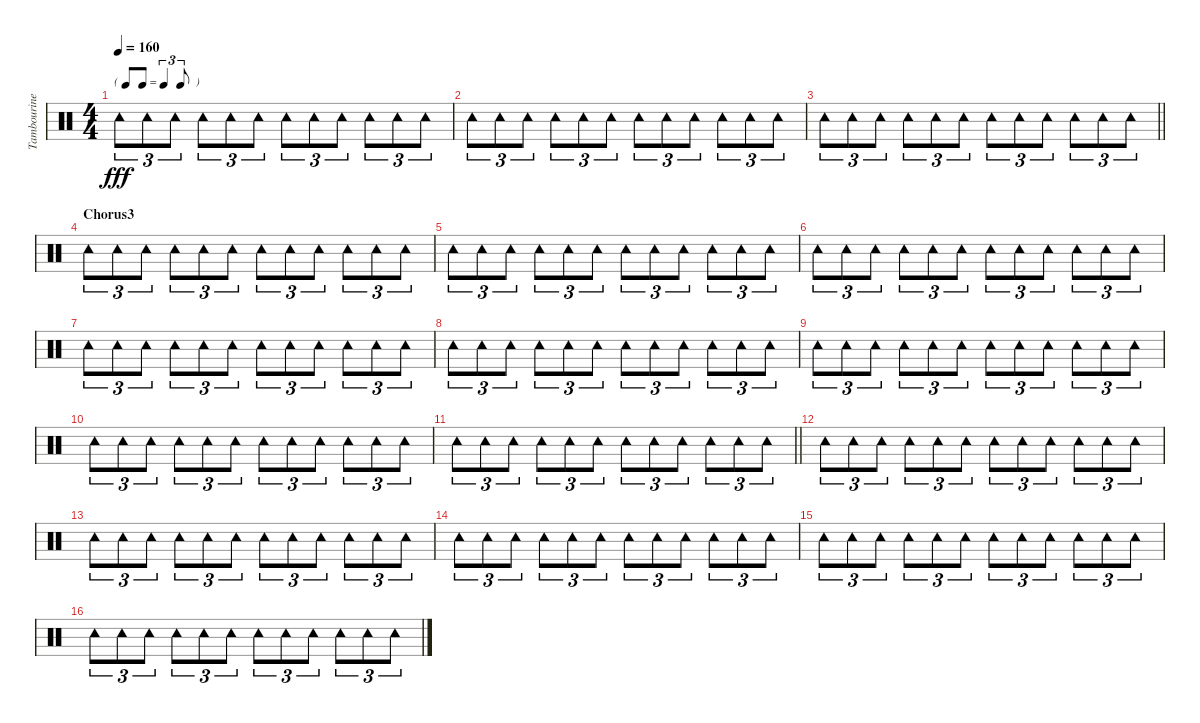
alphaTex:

\track ("Tambourine" "Tambourine") {instrument percussion}
\staff {score}
\articulation defaults
\ts (4 4)
\tf triplet8th
\tempo 160
\clef neutral
\ks c "Tambourine (hit)".8{tu (3 2) dy fff} "Tambourine (hit)".8{tu (3 2)} "Tambourine (hit)".8{tu (3 2)} "Tambourine (hit)".8{tu (3 2)} "Tambourine (hit)".8{tu (3 2)} "Tambourine (hit)".8{tu (3 2)} "Tambourine (hit)".8{tu (3 2)} "Tambourine (hit)".8{tu (3 2)} "Tambourine (hit)".8{tu (3 2)} "Tambourine (hit)".8{tu (3 2)} "Tambourine (hit)".8{tu (3 2)} "Tambourine (hit)".8{tu (3 2)}
|
"Tambourine (hit)".8{tu (3 2)} "Tambourine (hit)".8{tu (3 2)} "Tambourine (hit)".8{tu (3 2)} "Tambourine (hit)".8{tu (3 2)} "Tambourine (hit)".8{tu (3 2)} "Tambourine (hit)".8{tu (3 2)} "Tambourine (hit)".8{tu (3 2)} "Tambourine (hit)".8{tu (3 2)} "Tambourine (hit)".8{tu (3 2)} "Tambourine (hit)".8{tu (3 2)} "Tambourine (hit)".8{tu (3 2)} "Tambourine (hit)".8{tu (3 2)} |
\barLineRight lightlight "Tambourine (hit)".8{tu (3 2)} "Tambourine (hit)".8{tu (3 2)} "Tambourine (hit)".8{tu (3 2)} "Tambourine (hit)".8{tu (3 2)} "Tambourine (hit)".8{tu (3 2)} "Tambourine (hit)".8{tu (3 2)} "Tambourine (hit)".8{tu (3 2)} "Tambourine (hit)".8{tu (3 2)} "Tambourine (hit)".8{tu (3 2)} "Tambourine (hit)".8{tu (3 2)} "Tambourine (hit)".8{tu (3 2)} "Tambourine (hit)".8{tu (3 2)}
|
\section ("" "Chorus3")
"Tambourine (hit)".8{tu (3 2)} "Tambourine (hit)".8{tu (3 2)} "Tambourine (hit)".8{tu (3 2)} "Tambourine (hit)".8{tu (3 2)} "Tambourine (hit)".8{tu (3 2)} "Tambourine (hit)".8{tu (3 2)} "Tambourine (hit)".8{tu (3 2)} "Tambourine (hit)".8{tu (3 2)} "Tambourine (hit)".8{tu (3 2)} "Tambourine (hit)".8{tu (3 2)} "Tambourine (hit)".8{tu (3 2)} "Tambourine (hit)".8{tu (3 2)} |
"Tambourine (hit)".8{tu (3 2)} "Tambourine (hit)".8{tu (3 2)} "Tambourine (hit)".8{tu (3 2)} "Tambourine (hit)".8{tu (3 2)} "Tambourine (hit)".8{tu (3 2)} "Tambourine (hit)".8{tu (3 2)} "Tambourine (hit)".8{tu (3 2)} "Tambourine (hit)".8{tu (3 2)} "Tambourine (hit)".8{tu (3 2)} "Tambourine (hit)".8{tu (3 2)} "Tambourine (hit)".8{tu (3 2)} "Tambourine (hit)".8{tu (3 2)} |
"Tambourine (hit)".8{tu (3 2)} "Tambourine (hit)".8{tu (3 2)} "Tambourine (hit)".8{tu (3 2)} "Tambourine (hit)".8{tu (3 2)} "Tambourine (hit)".8{tu (3 2)} "Tambourine (hit)".8{tu (3 2)} "Tambourine (hit)".8{tu (3 2)} "Tambourine (hit)".8{tu (3 2)} "Tambourine (hit)".8{tu (3 2)} "Tambourine (hit)".8{tu (3 2)} "Tambourine (hit)".8{tu (3 2)} "Tambourine (hit)".8{tu (3 2)} |
"Tambourine (hit)".8{tu (3 2)} "Tambourine (hit)".8{tu (3 2)} "Tambourine (hit)".8{tu (3 2)} "Tambourine (hit)".8{tu (3 2)} "Tambourine (hit)".8{tu (3 2)} "Tambourine (hit)".8{tu (3 2)} "Tambourine (hit)".8{tu (3 2)} "Tambourine (hit)".8{tu (3 2)} "Tambourine (hit)".8{tu (3 2)} "Tambourine (hit)".8{tu (3 2)} "Tambourine (hit)".8{tu (3 2)} "Tambourine (hit)".8{tu (3 2)} |
"Tambourine (hit)".8{tu (3 2)} "Tambourine (hit)".8{tu (3 2)} "Tambourine (hit)".8{tu (3 2)} "Tambourine (hit)".8{tu (3 2)} "Tambourine (hit)".8{tu (3 2)} "Tambourine (hit)".8{tu (3 2)} "Tambourine (hit)".8{tu (3 2)} "Tambourine (hit)".8{tu (3 2)} "Tambourine (hit)".8{tu (3 2)} "Tambourine (hit)".8{tu (3 2)} "Tambourine (hit)".8{tu (3 2)} "Tambourine (hit)".8{tu (3 2)} |
"Tambourine (hit)".8{tu (3 2)} "Tambourine (hit)".8{tu (3 2)} "Tambourine (hit)".8{tu (3 2)} "Tambourine (hit)".8{tu (3 2)} "Tambourine (hit)".8{tu (3 2)} "Tambourine (hit)".8{tu (3 2)} "Tambourine (hit)".8{tu (3 2)} "Tambourine (hit)".8{tu (3 2)} "Tambourine (hit)".8{tu (3 2)} "Tambourine (hit)".8{tu (3 2)} "Tambourine (hit)".8{tu (3 2)} "Tambourine (hit)".8{tu (3 2)} |
"Tambourine (hit)".8{tu (3 2)} "Tambourine (hit)".8{tu (3 2)} "Tambourine (hit)".8{tu (3 2)} "Tambourine (hit)".8{tu (3 2)} "Tambourine (hit)".8{tu (3 2)} "Tambourine (hit)".8{tu (3 2)} "Tambourine (hit)".8{tu (3 2)} "Tambourine (hit)".8{tu (3 2)} "Tambourine (hit)".8{tu (3 2)} "Tambourine (hit)".8{tu (3 2)} "Tambourine (hit)".8{tu (3 2)} "Tambourine (hit)".8{tu (3 2)} |
\barLineRight lightlight "Tambourine (hit)".8{tu (3 2)} "Tambourine (hit)".8{tu (3 2)} "Tambourine (hit)".8{tu (3 2)} "Tambourine (hit)".8{tu (3 2)} "Tambourine (hit)".8{tu (3 2)} "Tambourine (hit)".8{tu (3 2)} "Tambourine (hit)".8{tu (3 2)} "Tambourine (hit)".8{tu (3 2)} "Tambourine (hit)".8{tu (3 2)} "Tambourine (hit)".8{tu (3 2)} "Tambourine (hit)".8{tu (3 2)} "Tambourine (hit)".8{tu (3 2)}
|
"Tambourine (hit)".8{tu (3 2)} "Tambourine (hit)".8{tu (3 2)} "Tambourine (hit)".8{tu (3 2)} "Tambourine (hit)".8{tu (3 2)} "Tambourine (hit)".8{tu (3 2)} "Tambourine (hit)".8{tu (3 2)} "Tambourine (hit)".8{tu (3 2)} "Tambourine (hit)".8{tu (3 2)} "Tambourine (hit)".8{tu (3 2)} "Tambourine (hit)".8{tu (3 2)} "Tambourine (hit)".8{tu (3 2)} "Tambourine (hit)".8{tu (3 2)} |
"Tambourine (hit)".8{tu (3 2)} "Tambourine (hit)".8{tu (3 2)} "Tambourine (hit)".8{tu (3 2)} "Tambourine (hit)".8{tu (3 2)} "Tambourine (hit)".8{tu (3 2)} "Tambourine (hit)".8{tu (3 2)} "Tambourine (hit)".8{tu (3 2)} "Tambourine (hit)".8{tu (3 2)} "Tambourine (hit)".8{tu (3 2)} "Tambourine (hit)".8{tu (3 2)} "Tambourine (hit)".8{tu (3 2)} "Tambourine (hit)".8{tu (3 2)} |
"Tambourine (hit)".8{tu (3 2)} "Tambourine (hit)".8{tu (3 2)} "Tambourine (hit)".8{tu (3 2)} "Tambourine (hit)".8{tu (3 2)} "Tambourine (hit)".8{tu (3 2)} "Tambourine (hit)".8{tu (3 2)} "Tambourine (hit)".8{tu (3 2)} "Tambourine (hit)".8{tu (3 2)} "Tambourine (hit)".8{tu (3 2)} "Tambourine (hit)".8{tu (3 2)} "Tambourine (hit)".8{tu (3 2)} "Tambourine (hit)".8{tu (3 2)} |
"Tambourine (hit)".8{tu (3 2)} "Tambourine (hit)".8{tu (3 2)} "Tambourine (hit)".8{tu (3 2)} "Tambourine (hit)".8{tu (3 2)} "Tambourine (hit)".8{tu (3 2)} "Tambourine (hit)".8{tu (3 2)} "Tambourine (hit)".8{tu (3 2)} "Tambourine (hit)".8{tu (3 2)} "Tambourine (hit)".8{tu (3 2)} "Tambourine (hit)".8{tu (3 2)} "Tambourine (hit)".8{tu (3 2)} "Tambourine (hit)".8{tu (3 2)} |
"Tambourine (hit)".8{tu (3 2)} "Tambourine (hit)".8{tu (3 2)} "Tambourine (hit)".8{tu (3 2)} "Tambourine (hit)".8{tu (3 2)} "Tambourine (hit)".8{tu (3 2)} "Tambourine (hit)".8{tu (3 2)} "Tambourine (hit)".8{tu (3 2)} "Tambourine (hit)".8{tu (3 2)} "Tambourine (hit)".8{tu (3 2)} "Tambourine (hit)".8{tu (3 2)} "Tambourine (hit)".8{tu (3 2)} "Tambourine (hit)".8{tu (3 2)}
